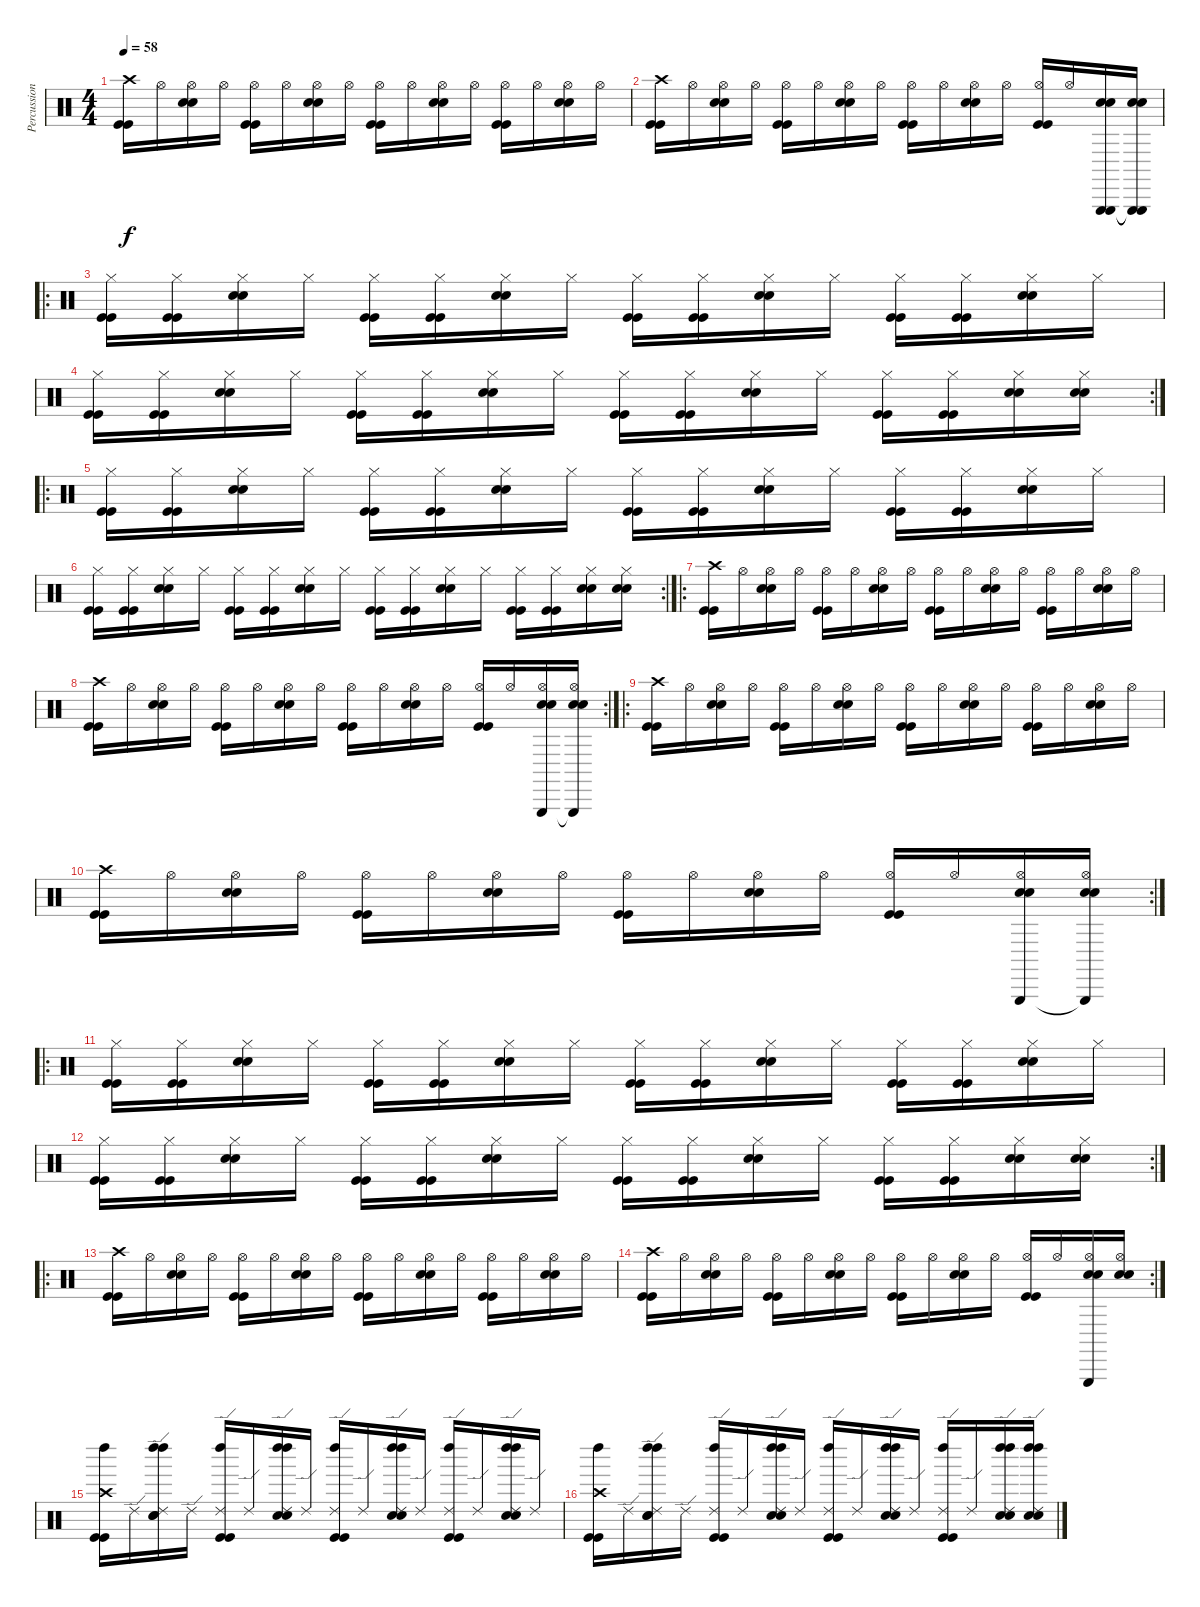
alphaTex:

\track ("Percussions" "Percussion") {instrument percussion}
\staff {score}
\articulation defaults
\ts (4 4)
\tempo 58
\clef neutral
\ks c
("Crash high (hit)" "Kick (hit)" "Kick (hit)").16{dy f} "Hi-Hat (open)".16 ("Hi-Hat (open)" "Snare (hit) 2" "Snare (hit) 2").16 "Hi-Hat (open)".16 ("Hi-Hat (open)" "Kick (hit)" "Kick (hit)").16 "Hi-Hat (open)".16 ("Hi-Hat (open)" "Snare (hit) 2" "Snare (hit) 2").16 "Hi-Hat (open)".16 ("Hi-Hat (open)" "Kick (hit)" "Kick (hit)").16 "Hi-Hat (open)".16 ("Hi-Hat (open)" "Snare (hit) 2" "Snare (hit) 2").16 "Hi-Hat (open)".16 ("Hi-Hat (open)" "Kick (hit)" "Kick (hit)").16 "Hi-Hat (open)".16 ("Hi-Hat (open)" "Snare (hit) 2" "Snare (hit) 2").16 "Hi-Hat (open)".16 |
("Crash high (hit)" "Kick (hit)" "Kick (hit)").16 "Hi-Hat (open)".16 ("Hi-Hat (open)" "Snare (hit) 2" "Snare (hit) 2").16 "Hi-Hat (open)".16 ("Hi-Hat (open)" "Kick (hit)" "Kick (hit)").16 "Hi-Hat (open)".16 ("Hi-Hat (open)" "Snare (hit) 2" "Snare (hit) 2").16 "Hi-Hat (open)".16 ("Hi-Hat (open)" "Kick (hit)" "Kick (hit)").16 "Hi-Hat (open)".16 ("Hi-Hat (open)" "Snare (hit) 2" "Snare (hit) 2").16 "Hi-Hat (open)".16 ("Hi-Hat (open)" "Kick (hit)" "Kick (hit)").16 "Hi-Hat (open)".16 ("Triangle (hit)" "Triangle (hit)" "Snare (hit) 2" "Snare (hit) 2").16 ("Triangle (hit)"{t} "Triangle (hit)"{t} "Snare (hit) 2" "Snare (hit) 2").16 |
\ro
("Hi-Hat (closed)" "Kick (hit)" "Kick (hit)").16 ("Hi-Hat (closed)" "Kick (hit)" "Kick (hit)").16 ("Hi-Hat (closed)" "Snare (hit) 2" "Snare (hit) 2").16 "Hi-Hat (closed)".16 ("Hi-Hat (closed)" "Kick (hit)" "Kick (hit)").16 ("Hi-Hat (closed)" "Kick (hit)" "Kick (hit)").16 ("Hi-Hat (closed)" "Snare (hit) 2" "Snare (hit) 2").16 "Hi-Hat (closed)".16 ("Hi-Hat (closed)" "Kick (hit)" "Kick (hit)").16 ("Hi-Hat (closed)" "Kick (hit)" "Kick (hit)").16 ("Hi-Hat (closed)" "Snare (hit) 2" "Snare (hit) 2").16 "Hi-Hat (closed)".16 ("Hi-Hat (closed)" "Kick (hit)" "Kick (hit)").16 ("Hi-Hat (closed)" "Kick (hit)" "Kick (hit)").16 ("Hi-Hat (closed)" "Snare (hit) 2" "Snare (hit) 2").16 "Hi-Hat (closed)".16 |
\rc 2
("Hi-Hat (closed)" "Kick (hit)" "Kick (hit)").16 ("Hi-Hat (closed)" "Kick (hit)" "Kick (hit)").16 ("Hi-Hat (closed)" "Snare (hit) 2" "Snare (hit) 2").16 "Hi-Hat (closed)".16 ("Hi-Hat (closed)" "Kick (hit)" "Kick (hit)").16 ("Hi-Hat (closed)" "Kick (hit)" "Kick (hit)").16 ("Hi-Hat (closed)" "Snare (hit) 2" "Snare (hit) 2").16 "Hi-Hat (closed)".16 ("Hi-Hat (closed)" "Kick (hit)" "Kick (hit)").16 ("Hi-Hat (closed)" "Kick (hit)" "Kick (hit)").16 ("Hi-Hat (closed)" "Snare (hit) 2" "Snare (hit) 2").16 "Hi-Hat (closed)".16 ("Hi-Hat (closed)" "Kick (hit)" "Kick (hit)").16 ("Hi-Hat (closed)" "Kick (hit)" "Kick (hit)").16 ("Hi-Hat (closed)" "Snare (hit) 2" "Snare (hit) 2").16 ("Hi-Hat (closed)" "Snare (hit) 2" "Snare (hit) 2").16 |
\ro
("Hi-Hat (closed)" "Kick (hit)" "Kick (hit)").16 ("Hi-Hat (closed)" "Kick (hit)" "Kick (hit)").16 ("Hi-Hat (closed)" "Snare (hit) 2" "Snare (hit) 2").16 "Hi-Hat (closed)".16 ("Hi-Hat (closed)" "Kick (hit)" "Kick (hit)").16 ("Hi-Hat (closed)" "Kick (hit)" "Kick (hit)").16 ("Hi-Hat (closed)" "Snare (hit) 2" "Snare (hit) 2").16 "Hi-Hat (closed)".16 ("Hi-Hat (closed)" "Kick (hit)" "Kick (hit)").16 ("Hi-Hat (closed)" "Kick (hit)" "Kick (hit)").16 ("Hi-Hat (closed)" "Snare (hit) 2" "Snare (hit) 2").16 "Hi-Hat (closed)".16 ("Hi-Hat (closed)" "Kick (hit)" "Kick (hit)").16 ("Hi-Hat (closed)" "Kick (hit)" "Kick (hit)").16 ("Hi-Hat (closed)" "Snare (hit) 2" "Snare (hit) 2").16 "Hi-Hat (closed)".16 |
\rc 2
("Hi-Hat (closed)" "Kick (hit)" "Kick (hit)").16 ("Hi-Hat (closed)" "Kick (hit)" "Kick (hit)").16 ("Hi-Hat (closed)" "Snare (hit) 2" "Snare (hit) 2").16 "Hi-Hat (closed)".16 ("Hi-Hat (closed)" "Kick (hit)" "Kick (hit)").16 ("Hi-Hat (closed)" "Kick (hit)" "Kick (hit)").16 ("Hi-Hat (closed)" "Snare (hit) 2" "Snare (hit) 2").16 "Hi-Hat (closed)".16 ("Hi-Hat (closed)" "Kick (hit)" "Kick (hit)").16 ("Hi-Hat (closed)" "Kick (hit)" "Kick (hit)").16 ("Hi-Hat (closed)" "Snare (hit) 2" "Snare (hit) 2").16 "Hi-Hat (closed)".16 ("Hi-Hat (closed)" "Kick (hit)" "Kick (hit)").16 ("Hi-Hat (closed)" "Kick (hit)" "Kick (hit)").16 ("Hi-Hat (closed)" "Snare (hit) 2" "Snare (hit) 2").16 ("Hi-Hat (closed)" "Snare (hit) 2" "Snare (hit) 2").16 |
\ro
("Crash high (hit)" "Kick (hit)" "Kick (hit)").16 "Hi-Hat (open)".16 ("Hi-Hat (open)" "Snare (hit) 2" "Snare (hit) 2").16 "Hi-Hat (open)".16 ("Hi-Hat (open)" "Kick (hit)" "Kick (hit)").16 "Hi-Hat (open)".16 ("Hi-Hat (open)" "Snare (hit) 2" "Snare (hit) 2").16 "Hi-Hat (open)".16 ("Hi-Hat (open)" "Kick (hit)" "Kick (hit)").16 "Hi-Hat (open)".16 ("Hi-Hat (open)" "Snare (hit) 2" "Snare (hit) 2").16 "Hi-Hat (open)".16 ("Hi-Hat (open)" "Kick (hit)" "Kick (hit)").16 "Hi-Hat (open)".16 ("Hi-Hat (open)" "Snare (hit) 2" "Snare (hit) 2").16 "Hi-Hat (open)".16 |
\rc 2
("Crash high (hit)" "Kick (hit)" "Kick (hit)").16 "Hi-Hat (open)".16 ("Hi-Hat (open)" "Snare (hit) 2" "Snare (hit) 2").16 "Hi-Hat (open)".16 ("Hi-Hat (open)" "Kick (hit)" "Kick (hit)").16 "Hi-Hat (open)".16 ("Hi-Hat (open)" "Snare (hit) 2" "Snare (hit) 2").16 "Hi-Hat (open)".16 ("Hi-Hat (open)" "Kick (hit)" "Kick (hit)").16 "Hi-Hat (open)".16 ("Hi-Hat (open)" "Snare (hit) 2" "Snare (hit) 2").16 "Hi-Hat (open)".16 ("Hi-Hat (open)" "Kick (hit)" "Kick (hit)").16 "Hi-Hat (open)".16 ("Hi-Hat (open)" "Triangle (hit)" "Snare (hit) 2" "Snare (hit) 2").16 ("Hi-Hat (open)" "Triangle (hit)"{t} "Snare (hit) 2" "Snare (hit) 2").16 |
\ro
("Crash high (hit)" "Kick (hit)" "Kick (hit)").16 "Hi-Hat (open)".16 ("Hi-Hat (open)" "Snare (hit) 2" "Snare (hit) 2").16 "Hi-Hat (open)".16 ("Hi-Hat (open)" "Kick (hit)" "Kick (hit)").16 "Hi-Hat (open)".16 ("Hi-Hat (open)" "Snare (hit) 2" "Snare (hit) 2").16 "Hi-Hat (open)".16 ("Hi-Hat (open)" "Kick (hit)" "Kick (hit)").16 "Hi-Hat (open)".16 ("Hi-Hat (open)" "Snare (hit) 2" "Snare (hit) 2").16 "Hi-Hat (open)".16 ("Hi-Hat (open)" "Kick (hit)" "Kick (hit)").16 "Hi-Hat (open)".16 ("Hi-Hat (open)" "Snare (hit) 2" "Snare (hit) 2").16 "Hi-Hat (open)".16 |
\rc 2
("Crash high (hit)" "Kick (hit)" "Kick (hit)").16 "Hi-Hat (open)".16 ("Hi-Hat (open)" "Snare (hit) 2" "Snare (hit) 2").16 "Hi-Hat (open)".16 ("Hi-Hat (open)" "Kick (hit)" "Kick (hit)").16 "Hi-Hat (open)".16 ("Hi-Hat (open)" "Snare (hit) 2" "Snare (hit) 2").16 "Hi-Hat (open)".16 ("Hi-Hat (open)" "Kick (hit)" "Kick (hit)").16 "Hi-Hat (open)".16 ("Hi-Hat (open)" "Snare (hit) 2" "Snare (hit) 2").16 "Hi-Hat (open)".16 ("Hi-Hat (open)" "Kick (hit)" "Kick (hit)").16 "Hi-Hat (open)".16 ("Hi-Hat (open)" "Triangle (hit)" "Snare (hit) 2" "Snare (hit) 2").16 ("Hi-Hat (open)" "Triangle (hit)"{t} "Snare (hit) 2" "Snare (hit) 2").16 |
\ro
("Hi-Hat (closed)" "Kick (hit)" "Kick (hit)").16 ("Hi-Hat (closed)" "Kick (hit)" "Kick (hit)").16 ("Hi-Hat (closed)" "Snare (hit) 2" "Snare (hit) 2").16 "Hi-Hat (closed)".16 ("Hi-Hat (closed)" "Kick (hit)" "Kick (hit)").16 ("Hi-Hat (closed)" "Kick (hit)" "Kick (hit)").16 ("Hi-Hat (closed)" "Snare (hit) 2" "Snare (hit) 2").16 "Hi-Hat (closed)".16 ("Hi-Hat (closed)" "Kick (hit)" "Kick (hit)").16 ("Hi-Hat (closed)" "Kick (hit)" "Kick (hit)").16 ("Hi-Hat (closed)" "Snare (hit) 2" "Snare (hit) 2").16 "Hi-Hat (closed)".16 ("Hi-Hat (closed)" "Kick (hit)" "Kick (hit)").16 ("Hi-Hat (closed)" "Kick (hit)" "Kick (hit)").16 ("Hi-Hat (closed)" "Snare (hit) 2" "Snare (hit) 2").16 "Hi-Hat (closed)".16 |
\rc 2
("Hi-Hat (closed)" "Kick (hit)" "Kick (hit)").16 ("Hi-Hat (closed)" "Kick (hit)" "Kick (hit)").16 ("Hi-Hat (closed)" "Snare (hit) 2" "Snare (hit) 2").16 "Hi-Hat (closed)".16 ("Hi-Hat (closed)" "Kick (hit)" "Kick (hit)").16 ("Hi-Hat (closed)" "Kick (hit)" "Kick (hit)").16 ("Hi-Hat (closed)" "Snare (hit) 2" "Snare (hit) 2").16 "Hi-Hat (closed)".16 ("Hi-Hat (closed)" "Kick (hit)" "Kick (hit)").16 ("Hi-Hat (closed)" "Kick (hit)" "Kick (hit)").16 ("Hi-Hat (closed)" "Snare (hit) 2" "Snare (hit) 2").16 "Hi-Hat (closed)".16 ("Hi-Hat (closed)" "Kick (hit)" "Kick (hit)").16 ("Hi-Hat (closed)" "Kick (hit)" "Kick (hit)").16 ("Hi-Hat (closed)" "Snare (hit) 2" "Snare (hit) 2").16 ("Hi-Hat (closed)" "Snare (hit) 2" "Snare (hit) 2").16 |
\ro
("Crash high (hit)" "Kick (hit)" "Kick (hit)").16 "Hi-Hat (open)".16 ("Hi-Hat (open)" "Snare (hit) 2" "Snare (hit) 2").16 "Hi-Hat (open)".16 ("Hi-Hat (open)" "Kick (hit)" "Kick (hit)").16 "Hi-Hat (open)".16 ("Hi-Hat (open)" "Snare (hit) 2" "Snare (hit) 2").16 "Hi-Hat (open)".16 ("Hi-Hat (open)" "Kick (hit)" "Kick (hit)").16 "Hi-Hat (open)".16 ("Hi-Hat (open)" "Snare (hit) 2" "Snare (hit) 2").16 "Hi-Hat (open)".16 ("Hi-Hat (open)" "Kick (hit)" "Kick (hit)").16 "Hi-Hat (open)".16 ("Hi-Hat (open)" "Snare (hit) 2" "Snare (hit) 2").16 "Hi-Hat (open)".16 |
\rc 2
("Crash high (hit)" "Kick (hit)" "Kick (hit)").16 "Hi-Hat (open)".16 ("Hi-Hat (open)" "Snare (hit) 2" "Snare (hit) 2").16 "Hi-Hat (open)".16 ("Hi-Hat (open)" "Kick (hit)" "Kick (hit)").16 "Hi-Hat (open)".16 ("Hi-Hat (open)" "Snare (hit) 2" "Snare (hit) 2").16 "Hi-Hat (open)".16 ("Hi-Hat (open)" "Kick (hit)" "Kick (hit)").16 "Hi-Hat (open)".16 ("Hi-Hat (open)" "Snare (hit) 2" "Snare (hit) 2").16 "Hi-Hat (open)".16 ("Hi-Hat (open)" "Kick (hit)" "Kick (hit)").16 "Hi-Hat (open)".16 ("Hi-Hat (open)" "Triangle (hit)" "Snare (hit) 2" "Snare (hit) 2").16 ("Hi-Hat (open)" "Snare (hit) 2" "Snare (hit) 2").16 |
("Crash high (hit)" "Left Maraca (hit)" "Kick (hit)" "Kick (hit)").16 "Ride (edge) 2".16 ("Ride (edge) 2" "Snare (hit) 2" "Snare (hit) 2" "Left Maraca (hit)" "Left Maraca (hit)").16 "Ride (edge) 2".16 ("Ride (edge) 2" "Left Maraca (hit)" "Kick (hit)" "Kick (hit)").16 "Ride (edge) 2".16 ("Ride (edge) 2" "Snare (hit) 2" "Snare (hit) 2" "Left Maraca (hit)" "Left Maraca (hit)").16 "Ride (edge) 2".16 ("Ride (edge) 2" "Left Maraca (hit)" "Kick (hit)" "Kick (hit)").16 "Ride (edge) 2".16 ("Ride (edge) 2" "Snare (hit) 2" "Snare (hit) 2" "Left Maraca (hit)" "Left Maraca (hit)").16 "Ride (edge) 2".16 ("Ride (edge) 2" "Left Maraca (hit)" "Kick (hit)" "Kick (hit)").16 "Ride (edge) 2".16 ("Ride (edge) 2" "Snare (hit) 2" "Snare (hit) 2" "Left Maraca (hit)" "Left Maraca (hit)").16 "Ride (edge) 2".16 |
("Crash high (hit)" "Left Maraca (hit)" "Kick (hit)" "Kick (hit)").16 "Ride (edge) 2".16 ("Ride (edge) 2" "Snare (hit) 2" "Snare (hit) 2" "Left Maraca (hit)" "Left Maraca (hit)").16 "Ride (edge) 2".16 ("Ride (edge) 2" "Left Maraca (hit)" "Kick (hit)" "Kick (hit)").16 "Ride (edge) 2".16 ("Ride (edge) 2" "Snare (hit) 2" "Snare (hit) 2" "Left Maraca (hit)" "Left Maraca (hit)").16 "Ride (edge) 2".16 ("Ride (edge) 2" "Left Maraca (hit)" "Kick (hit)" "Kick (hit)").16 "Ride (edge) 2".16 ("Ride (edge) 2" "Snare (hit) 2" "Snare (hit) 2" "Left Maraca (hit)" "Left Maraca (hit)").16 "Ride (edge) 2".16 ("Ride (edge) 2" "Left Maraca (hit)" "Kick (hit)" "Kick (hit)").16 "Ride (edge) 2".16 ("Ride (edge) 2" "Snare (hit) 2" "Snare (hit) 2" "Left Maraca (hit)" "Left Maraca (hit)").16 ("Ride (edge) 2" "Snare (hit) 2" "Snare (hit) 2" "Left Maraca (hit)" "Left Maraca (hit)").16
